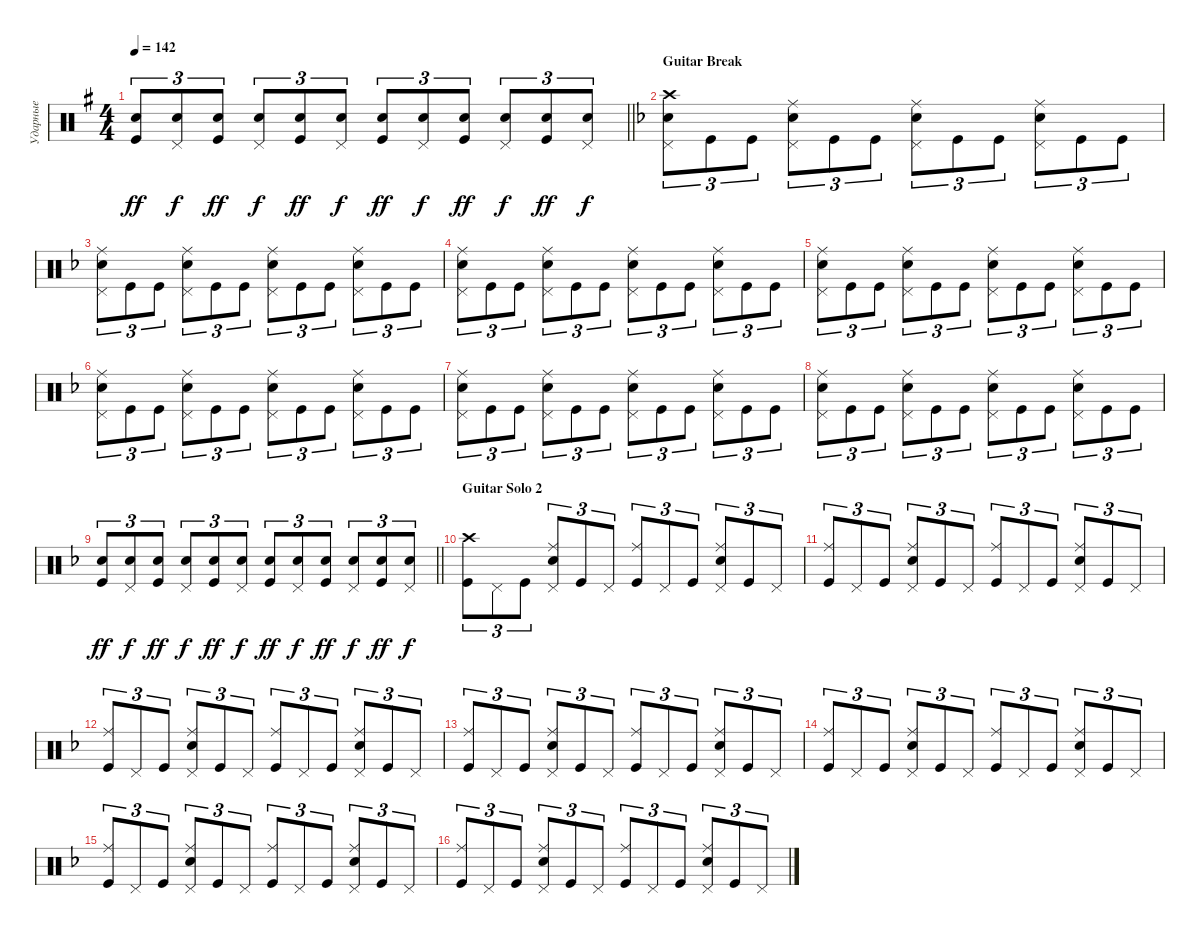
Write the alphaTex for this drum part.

\track ("Ударные" "Ударные") {instrument percussion}
\staff {score}
\articulation defaults
\ts (4 4)
\tempo 142
\clef neutral
\barLineRight lightlight
\ks eminor
("Kick (hit)" "Snare (hit) 2").8{tu (3 2) dy ff} ("Snare (hit) 2" "Pedal Hi-Hat (hit)").8{tu (3 2) dy f} ("Snare (hit) 2" "Kick (hit)").8{tu (3 2) dy ff} ("Snare (hit) 2" "Pedal Hi-Hat (hit)").8{tu (3 2) dy f} ("Snare (hit) 2" "Kick (hit)").8{tu (3 2) dy ff} ("Snare (hit) 2" "Pedal Hi-Hat (hit)").8{tu (3 2) dy f} ("Kick (hit)" "Snare (hit) 2").8{tu (3 2) dy ff} ("Snare (hit) 2" "Pedal Hi-Hat (hit)").8{tu (3 2) dy f} ("Snare (hit) 2" "Kick (hit)").8{tu (3 2) dy ff} ("Snare (hit) 2" "Pedal Hi-Hat (hit)").8{tu (3 2) dy f} ("Snare (hit) 2" "Kick (hit)").8{tu (3 2) dy ff} ("Snare (hit) 2" "Pedal Hi-Hat (hit)").8{tu (3 2) dy f} |
\section ("" "Guitar Break")
\ks dminor
("Snare (hit) 2" "Crash high (hit)" "Pedal Hi-Hat (hit)").8{tu (3 2)} "Kick (hit)".8{tu (3 2)} "Kick (hit)".8{tu (3 2)} ("Snare (hit) 2" "Ride (middle)" "Pedal Hi-Hat (hit)").8{tu (3 2)} "Kick (hit)".8{tu (3 2)} "Kick (hit)".8{tu (3 2)} ("Snare (hit) 2" "Ride (middle)" "Pedal Hi-Hat (hit)").8{tu (3 2)} "Kick (hit)".8{tu (3 2)} "Kick (hit)".8{tu (3 2)} ("Snare (hit) 2" "Ride (middle)" "Pedal Hi-Hat (hit)").8{tu (3 2)} "Kick (hit)".8{tu (3 2)} "Kick (hit)".8{tu (3 2)} |
("Snare (hit) 2" "Ride (middle)" "Pedal Hi-Hat (hit)").8{tu (3 2)} "Kick (hit)".8{tu (3 2)} "Kick (hit)".8{tu (3 2)} ("Snare (hit) 2" "Ride (middle)" "Pedal Hi-Hat (hit)").8{tu (3 2)} "Kick (hit)".8{tu (3 2)} "Kick (hit)".8{tu (3 2)} ("Snare (hit) 2" "Ride (middle)" "Pedal Hi-Hat (hit)").8{tu (3 2)} "Kick (hit)".8{tu (3 2)} "Kick (hit)".8{tu (3 2)} ("Snare (hit) 2" "Ride (middle)" "Pedal Hi-Hat (hit)").8{tu (3 2)} "Kick (hit)".8{tu (3 2)} "Kick (hit)".8{tu (3 2)} |
("Snare (hit) 2" "Ride (middle)" "Pedal Hi-Hat (hit)").8{tu (3 2)} "Kick (hit)".8{tu (3 2)} "Kick (hit)".8{tu (3 2)} ("Snare (hit) 2" "Ride (middle)" "Pedal Hi-Hat (hit)").8{tu (3 2)} "Kick (hit)".8{tu (3 2)} "Kick (hit)".8{tu (3 2)} ("Snare (hit) 2" "Ride (middle)" "Pedal Hi-Hat (hit)").8{tu (3 2)} "Kick (hit)".8{tu (3 2)} "Kick (hit)".8{tu (3 2)} ("Snare (hit) 2" "Ride (middle)" "Pedal Hi-Hat (hit)").8{tu (3 2)} "Kick (hit)".8{tu (3 2)} "Kick (hit)".8{tu (3 2)} |
("Snare (hit) 2" "Ride (middle)" "Pedal Hi-Hat (hit)").8{tu (3 2)} "Kick (hit)".8{tu (3 2)} "Kick (hit)".8{tu (3 2)} ("Snare (hit) 2" "Ride (middle)" "Pedal Hi-Hat (hit)").8{tu (3 2)} "Kick (hit)".8{tu (3 2)} "Kick (hit)".8{tu (3 2)} ("Snare (hit) 2" "Ride (middle)" "Pedal Hi-Hat (hit)").8{tu (3 2)} "Kick (hit)".8{tu (3 2)} "Kick (hit)".8{tu (3 2)} ("Snare (hit) 2" "Ride (middle)" "Pedal Hi-Hat (hit)").8{tu (3 2)} "Kick (hit)".8{tu (3 2)} "Kick (hit)".8{tu (3 2)} |
("Snare (hit) 2" "Ride (middle)" "Pedal Hi-Hat (hit)").8{tu (3 2)} "Kick (hit)".8{tu (3 2)} "Kick (hit)".8{tu (3 2)} ("Snare (hit) 2" "Ride (middle)" "Pedal Hi-Hat (hit)").8{tu (3 2)} "Kick (hit)".8{tu (3 2)} "Kick (hit)".8{tu (3 2)} ("Snare (hit) 2" "Ride (middle)" "Pedal Hi-Hat (hit)").8{tu (3 2)} "Kick (hit)".8{tu (3 2)} "Kick (hit)".8{tu (3 2)} ("Snare (hit) 2" "Ride (middle)" "Pedal Hi-Hat (hit)").8{tu (3 2)} "Kick (hit)".8{tu (3 2)} "Kick (hit)".8{tu (3 2)} |
("Snare (hit) 2" "Ride (middle)" "Pedal Hi-Hat (hit)").8{tu (3 2)} "Kick (hit)".8{tu (3 2)} "Kick (hit)".8{tu (3 2)} ("Snare (hit) 2" "Ride (middle)" "Pedal Hi-Hat (hit)").8{tu (3 2)} "Kick (hit)".8{tu (3 2)} "Kick (hit)".8{tu (3 2)} ("Snare (hit) 2" "Ride (middle)" "Pedal Hi-Hat (hit)").8{tu (3 2)} "Kick (hit)".8{tu (3 2)} "Kick (hit)".8{tu (3 2)} ("Snare (hit) 2" "Ride (middle)" "Pedal Hi-Hat (hit)").8{tu (3 2)} "Kick (hit)".8{tu (3 2)} "Kick (hit)".8{tu (3 2)} |
("Snare (hit) 2" "Ride (middle)" "Pedal Hi-Hat (hit)").8{tu (3 2)} "Kick (hit)".8{tu (3 2)} "Kick (hit)".8{tu (3 2)} ("Snare (hit) 2" "Ride (middle)" "Pedal Hi-Hat (hit)").8{tu (3 2)} "Kick (hit)".8{tu (3 2)} "Kick (hit)".8{tu (3 2)} ("Snare (hit) 2" "Ride (middle)" "Pedal Hi-Hat (hit)").8{tu (3 2)} "Kick (hit)".8{tu (3 2)} "Kick (hit)".8{tu (3 2)} ("Snare (hit) 2" "Ride (middle)" "Pedal Hi-Hat (hit)").8{tu (3 2)} "Kick (hit)".8{tu (3 2)} "Kick (hit)".8{tu (3 2)} |
\barLineRight lightlight
("Kick (hit)" "Snare (hit) 2").8{tu (3 2) dy ff} ("Snare (hit) 2" "Pedal Hi-Hat (hit)").8{tu (3 2) dy f} ("Snare (hit) 2" "Kick (hit)").8{tu (3 2) dy ff} ("Snare (hit) 2" "Pedal Hi-Hat (hit)").8{tu (3 2) dy f} ("Snare (hit) 2" "Kick (hit)").8{tu (3 2) dy ff} ("Snare (hit) 2" "Pedal Hi-Hat (hit)").8{tu (3 2) dy f} ("Kick (hit)" "Snare (hit) 2").8{tu (3 2) dy ff} ("Snare (hit) 2" "Pedal Hi-Hat (hit)").8{tu (3 2) dy f} ("Snare (hit) 2" "Kick (hit)").8{tu (3 2) dy ff} ("Snare (hit) 2" "Pedal Hi-Hat (hit)").8{tu (3 2) dy f} ("Snare (hit) 2" "Kick (hit)").8{tu (3 2) dy ff} ("Snare (hit) 2" "Pedal Hi-Hat (hit)").8{tu (3 2) dy f} |
\section ("" "Guitar Solo 2")
("Kick (hit)" "Crash high (hit)").8{tu (3 2)} "Pedal Hi-Hat (hit)".8{tu (3 2)} "Kick (hit)".8{tu (3 2)} ("Snare (hit) 2" "Ride (middle)" "Pedal Hi-Hat (hit)").8{tu (3 2)} "Kick (hit)".8{tu (3 2)} "Pedal Hi-Hat (hit)".8{tu (3 2)} ("Kick (hit)" "Ride (middle)").8{tu (3 2)} "Pedal Hi-Hat (hit)".8{tu (3 2)} "Kick (hit)".8{tu (3 2)} ("Snare (hit) 2" "Ride (middle)" "Pedal Hi-Hat (hit)").8{tu (3 2)} "Kick (hit)".8{tu (3 2)} "Pedal Hi-Hat (hit)".8{tu (3 2)} |
("Kick (hit)" "Ride (middle)").8{tu (3 2)} "Pedal Hi-Hat (hit)".8{tu (3 2)} "Kick (hit)".8{tu (3 2)} ("Snare (hit) 2" "Ride (middle)" "Pedal Hi-Hat (hit)").8{tu (3 2)} "Kick (hit)".8{tu (3 2)} "Pedal Hi-Hat (hit)".8{tu (3 2)} ("Kick (hit)" "Ride (middle)").8{tu (3 2)} "Pedal Hi-Hat (hit)".8{tu (3 2)} "Kick (hit)".8{tu (3 2)} ("Snare (hit) 2" "Ride (middle)" "Pedal Hi-Hat (hit)").8{tu (3 2)} "Kick (hit)".8{tu (3 2)} "Pedal Hi-Hat (hit)".8{tu (3 2)} |
("Kick (hit)" "Ride (middle)").8{tu (3 2)} "Pedal Hi-Hat (hit)".8{tu (3 2)} "Kick (hit)".8{tu (3 2)} ("Snare (hit) 2" "Ride (middle)" "Pedal Hi-Hat (hit)").8{tu (3 2)} "Kick (hit)".8{tu (3 2)} "Pedal Hi-Hat (hit)".8{tu (3 2)} ("Kick (hit)" "Ride (middle)").8{tu (3 2)} "Pedal Hi-Hat (hit)".8{tu (3 2)} "Kick (hit)".8{tu (3 2)} ("Snare (hit) 2" "Ride (middle)" "Pedal Hi-Hat (hit)").8{tu (3 2)} "Kick (hit)".8{tu (3 2)} "Pedal Hi-Hat (hit)".8{tu (3 2)} |
("Kick (hit)" "Ride (middle)").8{tu (3 2)} "Pedal Hi-Hat (hit)".8{tu (3 2)} "Kick (hit)".8{tu (3 2)} ("Snare (hit) 2" "Ride (middle)" "Pedal Hi-Hat (hit)").8{tu (3 2)} "Kick (hit)".8{tu (3 2)} "Pedal Hi-Hat (hit)".8{tu (3 2)} ("Kick (hit)" "Ride (middle)").8{tu (3 2)} "Pedal Hi-Hat (hit)".8{tu (3 2)} "Kick (hit)".8{tu (3 2)} ("Snare (hit) 2" "Ride (middle)" "Pedal Hi-Hat (hit)").8{tu (3 2)} "Kick (hit)".8{tu (3 2)} "Pedal Hi-Hat (hit)".8{tu (3 2)} |
("Kick (hit)" "Ride (middle)").8{tu (3 2)} "Pedal Hi-Hat (hit)".8{tu (3 2)} "Kick (hit)".8{tu (3 2)} ("Snare (hit) 2" "Ride (middle)" "Pedal Hi-Hat (hit)").8{tu (3 2)} "Kick (hit)".8{tu (3 2)} "Pedal Hi-Hat (hit)".8{tu (3 2)} ("Kick (hit)" "Ride (middle)").8{tu (3 2)} "Pedal Hi-Hat (hit)".8{tu (3 2)} "Kick (hit)".8{tu (3 2)} ("Snare (hit) 2" "Ride (middle)" "Pedal Hi-Hat (hit)").8{tu (3 2)} "Kick (hit)".8{tu (3 2)} "Pedal Hi-Hat (hit)".8{tu (3 2)} |
("Kick (hit)" "Ride (middle)").8{tu (3 2)} "Pedal Hi-Hat (hit)".8{tu (3 2)} "Kick (hit)".8{tu (3 2)} ("Snare (hit) 2" "Ride (middle)" "Pedal Hi-Hat (hit)").8{tu (3 2)} "Kick (hit)".8{tu (3 2)} "Pedal Hi-Hat (hit)".8{tu (3 2)} ("Kick (hit)" "Ride (middle)").8{tu (3 2)} "Pedal Hi-Hat (hit)".8{tu (3 2)} "Kick (hit)".8{tu (3 2)} ("Snare (hit) 2" "Ride (middle)" "Pedal Hi-Hat (hit)").8{tu (3 2)} "Kick (hit)".8{tu (3 2)} "Pedal Hi-Hat (hit)".8{tu (3 2)} |
("Kick (hit)" "Ride (middle)").8{tu (3 2)} "Pedal Hi-Hat (hit)".8{tu (3 2)} "Kick (hit)".8{tu (3 2)} ("Snare (hit) 2" "Ride (middle)" "Pedal Hi-Hat (hit)").8{tu (3 2)} "Kick (hit)".8{tu (3 2)} "Pedal Hi-Hat (hit)".8{tu (3 2)} ("Kick (hit)" "Ride (middle)").8{tu (3 2)} "Pedal Hi-Hat (hit)".8{tu (3 2)} "Kick (hit)".8{tu (3 2)} ("Snare (hit) 2" "Ride (middle)" "Pedal Hi-Hat (hit)").8{tu (3 2)} "Kick (hit)".8{tu (3 2)} "Pedal Hi-Hat (hit)".8{tu (3 2)}
